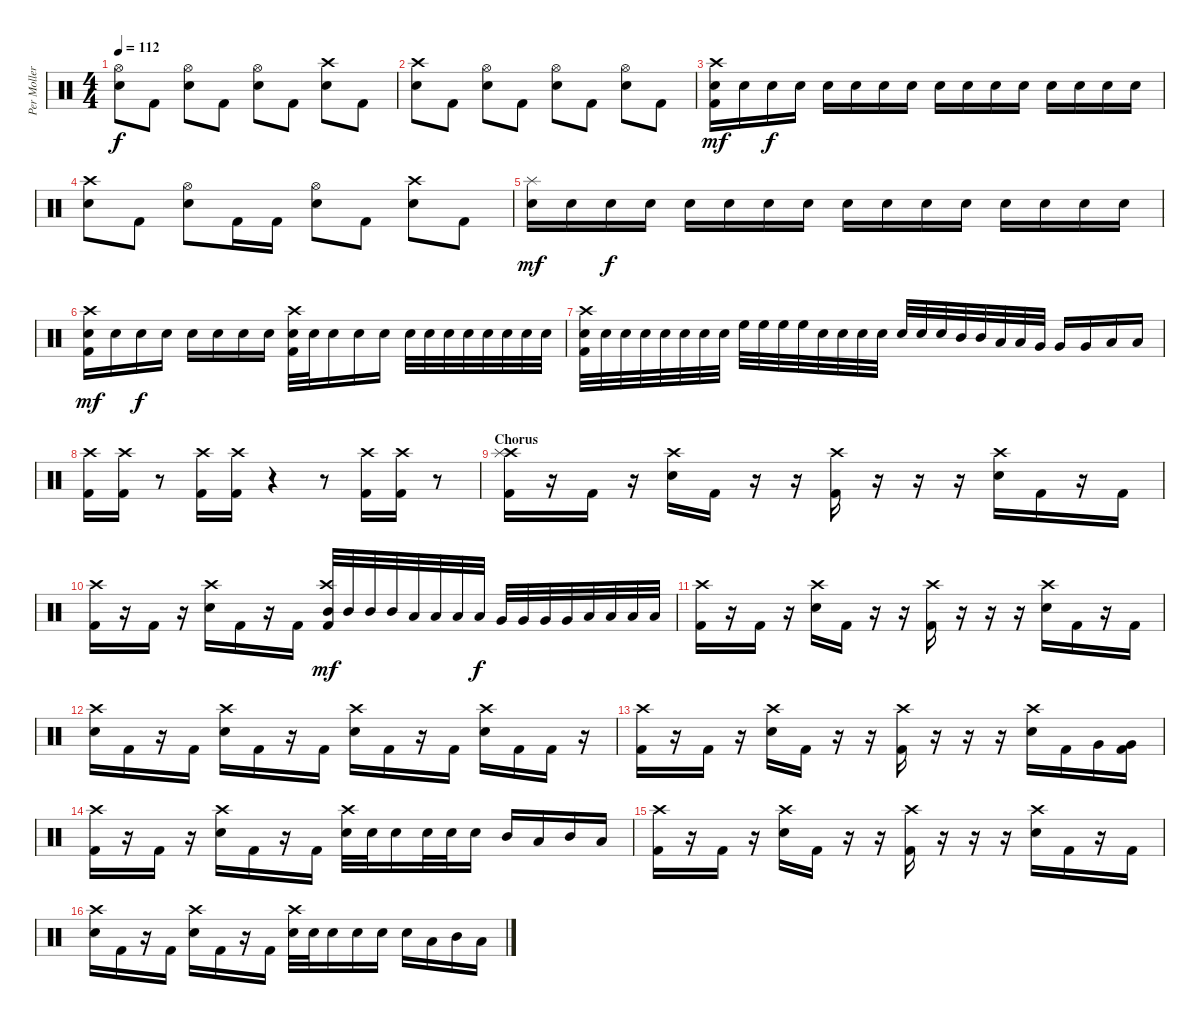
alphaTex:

\track ("Per Moller Jensen" "Per Moller") {instrument percussion}
\staff {score}
\articulation defaults
\ts (4 4)
\tempo 112
\clef neutral
\ks c
("Hi-Hat (open)" "Electric Snare (hit)").8{dy f} "Kick (hit) 2".8 ("Hi-Hat (open)" "Electric Snare (hit)").8 "Kick (hit) 2".8 ("Hi-Hat (open)" "Electric Snare (hit)").8 "Kick (hit) 2".8 ("Crash high (hit)" "Electric Snare (hit)").8 "Kick (hit) 2".8 |
("Crash high (hit)" "Electric Snare (hit)").8 "Kick (hit) 2".8 ("Hi-Hat (open)" "Electric Snare (hit)").8 "Kick (hit) 2".8 ("Hi-Hat (open)" "Electric Snare (hit)").8 "Kick (hit) 2".8 ("Hi-Hat (open)" "Electric Snare (hit)").8 "Kick (hit) 2".8 |
("Crash high (hit)" "Electric Snare (hit)" "Kick (hit) 2").16{dy mf} "Electric Snare (hit)".16 "Electric Snare (hit)".16{dy f} "Electric Snare (hit)".16 "Electric Snare (hit)".16 "Electric Snare (hit)".16 "Electric Snare (hit)".16 "Electric Snare (hit)".16 "Electric Snare (hit)".16 "Electric Snare (hit)".16 "Electric Snare (hit)".16 "Electric Snare (hit)".16 "Electric Snare (hit)".16 "Electric Snare (hit)".16 "Electric Snare (hit)".16 "Electric Snare (hit)".16 |
("Crash high (hit)" "Electric Snare (hit)").8 "Kick (hit) 2".8 ("Hi-Hat (open)" "Electric Snare (hit)").8 "Kick (hit) 2".16 "Kick (hit) 2".16 ("Hi-Hat (open)" "Electric Snare (hit)").8 "Kick (hit) 2".8 ("Crash high (hit)" "Electric Snare (hit)").8 "Kick (hit) 2".8 |
("Splash (hit)" "Electric Snare (hit)").16{dy mf} "Electric Snare (hit)".16 "Electric Snare (hit)".16{dy f} "Electric Snare (hit)".16 "Electric Snare (hit)".16 "Electric Snare (hit)".16 "Electric Snare (hit)".16 "Electric Snare (hit)".16 "Electric Snare (hit)".16 "Electric Snare (hit)".16 "Electric Snare (hit)".16 "Electric Snare (hit)".16 "Electric Snare (hit)".16 "Electric Snare (hit)".16 "Electric Snare (hit)".16 "Electric Snare (hit)".16 |
("Crash high (hit)" "Electric Snare (hit)" "Kick (hit) 2").16{dy mf} "Electric Snare (hit)".16 "Electric Snare (hit)".16{dy f} "Electric Snare (hit)".16 "Electric Snare (hit)".16 "Electric Snare (hit)".16 "Electric Snare (hit)".16 "Electric Snare (hit)".16 ("Crash high (hit)" "Electric Snare (hit)" "Kick (hit) 2").32 "Electric Snare (hit)".32 "Electric Snare (hit)".16 "Electric Snare (hit)".16 "Electric Snare (hit)".16 "Electric Snare (hit)".32 "Electric Snare (hit)".32 "Electric Snare (hit)".32 "Electric Snare (hit)".32 "Electric Snare (hit)".32 "Electric Snare (hit)".32 "Electric Snare (hit)".32 "Electric Snare (hit)".32 |
("Crash high (hit)" "Electric Snare (hit)" "Kick (hit) 2").32 "Electric Snare (hit)".32 "Electric Snare (hit)".32 "Electric Snare (hit)".32 "Electric Snare (hit)".32 "Electric Snare (hit)".32 "Electric Snare (hit)".32 "Electric Snare (hit)".32 "High Floor Tom (hit)".32 "High Floor Tom (hit)".32 "High Floor Tom (hit)".32 "High Floor Tom (hit)".32 "Electric Snare (hit)".32 "Electric Snare (hit)".32 "Electric Snare (hit)".32 "Electric Snare (hit)".32 "Electric Snare (hit)".32 "Electric Snare (hit)".32 "Electric Snare (hit)".32 "Mid Tom (hit)".32 "Mid Tom (hit)".32 "Low Tom (hit)".32 "Low Tom (hit)".32 "Very Low Tom (hit)".32 "Very Low Tom (hit)".16 "Very Low Tom (hit)".16 "Low Floor Tom (hit)".16 "Low Floor Tom (hit)".16 |
("Crash high (hit)" "Kick (hit) 2").16 ("Crash high (hit)" "Kick (hit) 2").16 r.8 ("Crash high (hit)" "Kick (hit) 2").16 ("Crash high (hit)" "Kick (hit) 2").16 r.4 r.8 ("Crash high (hit)" "Kick (hit) 2").16 ("Crash high (hit)" "Kick (hit) 2").16 r.8 |
\section ("" "Chorus")
("Crash high (hit)" "Splash (hit)" "Kick (hit) 2").16 r.16 "Kick (hit) 2".16 r.16 ("Crash high (hit)" "Electric Snare (hit)").16 "Kick (hit) 2".16 r.16 r.16 ("Crash high (hit)" "Kick (hit) 2").16 r.16 r.16 r.16 ("Crash high (hit)" "Electric Snare (hit)").16 "Kick (hit) 2".16 r.16 "Kick (hit) 2".16 |
("Crash high (hit)" "Kick (hit) 2").16 r.16 "Kick (hit) 2".16 r.16 ("Crash high (hit)" "Electric Snare (hit)").16 "Kick (hit) 2".16 r.16 "Kick (hit) 2".16 ("Crash high (hit)" "Mid Tom (hit)" "Kick (hit) 2").32{dy mf} "Mid Tom (hit)".32 "Mid Tom (hit)".32 "Mid Tom (hit)".32 "Low Tom (hit)".32 "Low Tom (hit)".32 "Low Tom (hit)".32 "Low Tom (hit)".32{dy f} "Very Low Tom (hit)".32 "Very Low Tom (hit)".32 "Very Low Tom (hit)".32 "Very Low Tom (hit)".32 "Low Floor Tom (hit)".32 "Low Floor Tom (hit)".32 "Low Floor Tom (hit)".32 "Low Floor Tom (hit)".32 |
("Crash high (hit)" "Kick (hit) 2").16 r.16 "Kick (hit) 2".16 r.16 ("Crash high (hit)" "Electric Snare (hit)").16 "Kick (hit) 2".16 r.16 r.16 ("Crash high (hit)" "Kick (hit) 2").16 r.16 r.16 r.16 ("Crash high (hit)" "Electric Snare (hit)").16 "Kick (hit) 2".16 r.16 "Kick (hit) 2".16 |
("Crash high (hit)" "Electric Snare (hit)").16 "Kick (hit) 2".16 r.16 "Kick (hit) 2".16 ("Crash high (hit)" "Electric Snare (hit)").16 "Kick (hit) 2".16 r.16 "Kick (hit) 2".16 ("Crash high (hit)" "Electric Snare (hit)").16 "Kick (hit) 2".16 r.16 "Kick (hit) 2".16 ("Crash high (hit)" "Electric Snare (hit)").16 "Kick (hit) 2".16 "Kick (hit) 2".16 r.16 |
("Crash high (hit)" "Kick (hit) 2").16 r.16 "Kick (hit) 2".16 r.16 ("Crash high (hit)" "Electric Snare (hit)").16 "Kick (hit) 2".16 r.16 r.16 ("Crash high (hit)" "Kick (hit) 2").16 r.16 r.16 r.16 ("Crash high (hit)" "Electric Snare (hit)").16 "Kick (hit) 2".16 "Very Low Tom (hit)".16 ("Very Low Tom (hit)" "Kick (hit) 2").16 |
("Crash high (hit)" "Kick (hit) 2").16 r.16 "Kick (hit) 2".16 r.16 ("Crash high (hit)" "Electric Snare (hit)").16 "Kick (hit) 2".16 r.16 "Kick (hit) 2".16 ("Crash high (hit)" "Electric Snare (hit)").32 "Electric Snare (hit)".32 "Electric Snare (hit)".16 "Electric Snare (hit)".32 "Electric Snare (hit)".32 "Electric Snare (hit)".16 "Mid Tom (hit)".16 "Low Tom (hit)".16 "Mid Tom (hit)".16 "Low Floor Tom (hit)".16 |
("Crash high (hit)" "Kick (hit) 2").16 r.16 "Kick (hit) 2".16 r.16 ("Crash high (hit)" "Electric Snare (hit)").16 "Kick (hit) 2".16 r.16 r.16 ("Crash high (hit)" "Kick (hit) 2").16 r.16 r.16 r.16 ("Crash high (hit)" "Electric Snare (hit)").16 "Kick (hit) 2".16 r.16 "Kick (hit) 2".16 |
("Crash high (hit)" "Electric Snare (hit)").16 "Kick (hit) 2".16 r.16 "Kick (hit) 2".16 ("Crash high (hit)" "Electric Snare (hit)").16 "Kick (hit) 2".16 r.16 "Kick (hit) 2".16 ("Crash high (hit)" "Electric Snare (hit)").32 "Electric Snare (hit)".32 "Electric Snare (hit)".16 "Electric Snare (hit)".16 "Electric Snare (hit)".16 "Electric Snare (hit)".16 "Low Tom (hit)".16 "Mid Tom (hit)".16 "Low Floor Tom (hit)".16
